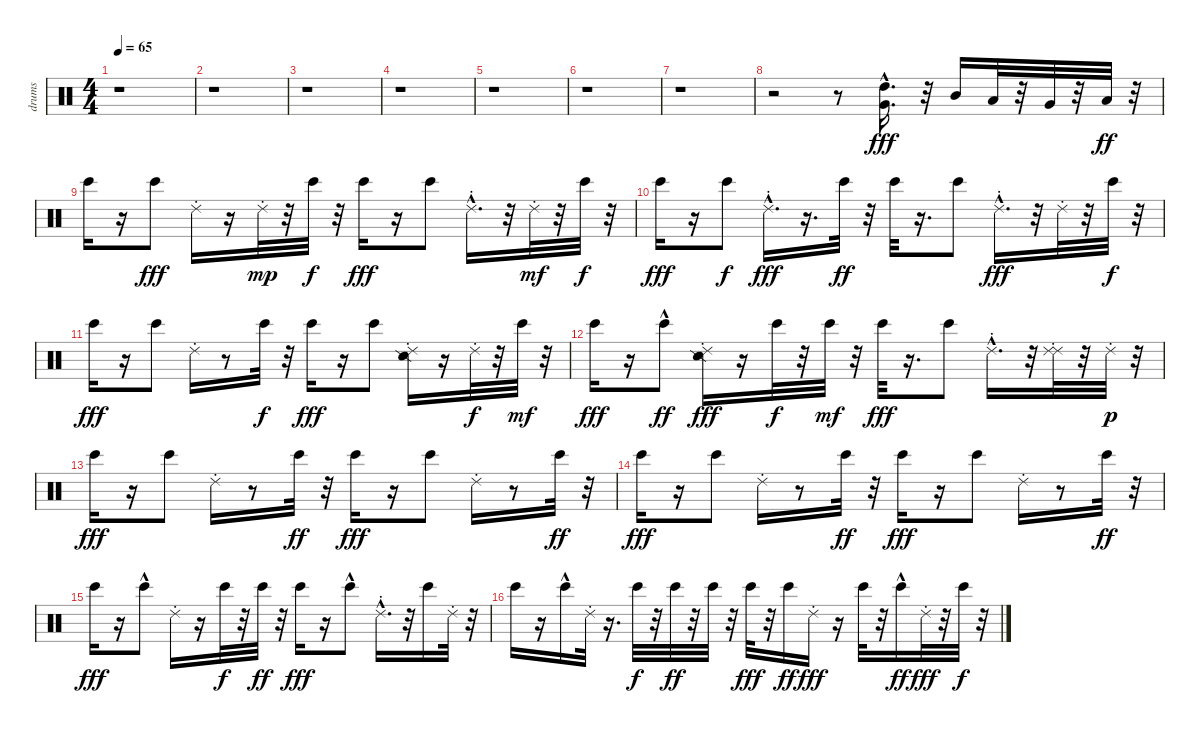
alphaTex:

\track ("drums" "drums") {instrument percussion}
\staff {score}
\articulation defaults
\ts (4 4)
\tempo 65
\clef neutral
\ks c
r.1{dy fff} |
r.1 |
r.1 |
r.1 |
r.1 |
r.1 |
r.1 |
r.2 r.8 ("Very Low Tom (hit)" "High Tom (hit)"{hac}).16{d} r.32 "Mid Tom (hit)".16 "Low Tom (hit)".32 r.32 "Very Low Tom (hit)".32 r.32 "Low Floor Tom (hit)".32{dy ff} r.32 |
"Bongo High (hit)".16 r.16 "Bongo High (hit)".8{dy fff} "Ride (choke) 2".16 r.16 "Ride (choke) 2".32{dy mp} r.32 "Bongo High (hit)".32{dy f} r.32 "Bongo High (hit)".16{dy fff} r.16 "Bongo High (hit)".8 "Ride (choke) 2"{hac}.16{d} r.32 "Ride (choke) 2".32{dy mf} r.32 "Bongo High (hit)".32{dy f} r.32 |
"Bongo High (hit)".16{dy fff} r.16 "Bongo High (hit)".8{dy f} "Ride (choke) 2"{hac}.16{d dy fff} r.16{d} "Bongo High (hit)".32{dy ff} r.32 "Bongo High (hit)".32 r.16{d} "Bongo High (hit)".8 "Ride (choke) 2"{hac}.16{d dy fff} r.32 "Ride (choke) 2".32 r.32 "Bongo High (hit)".32{dy f} r.32 |
"Bongo High (hit)".16{dy fff} r.16 "Bongo High (hit)".8 "Ride (choke) 2".16 r.8 "Bongo High (hit)".32{dy f} r.32 "Bongo High (hit)".16{dy fff} r.16 "Bongo High (hit)".8 ("Snare (side stick) 2" "Ride (choke) 2").16 r.16 "Ride (choke) 2".32{dy f} r.32 "Bongo High (hit)".32{dy mf} r.32 |
"Bongo High (hit)".16{dy fff} r.16 "Bongo High (hit)"{hac}.8{dy ff} ("Ride (choke) 2" "Snare (side stick) 2").16{dy fff} r.16 "Bongo High (hit)".32{dy f} r.32 "Bongo High (hit)".32{dy mf} r.32 "Bongo High (hit)".32{dy fff} r.16{d} "Bongo High (hit)".8 "Ride (choke) 2"{hac}.16{d} r.32 ("Ride (choke) 2" "Ride (choke) 2").32 r.32 "Ride (choke) 2".32{dy p} r.32 |
"Bongo High (hit)".16{dy fff} r.16 "Bongo High (hit)".8 "Ride (choke) 2".16 r.8 "Bongo High (hit)".32{dy ff} r.32 "Bongo High (hit)".16{dy fff} r.16 "Bongo High (hit)".8 "Ride (choke) 2".16 r.8 "Bongo High (hit)".32{dy ff} r.32 |
"Bongo High (hit)".16{dy fff} r.16 "Bongo High (hit)".8 "Ride (choke) 2".16 r.8 "Bongo High (hit)".32{dy ff} r.32 "Bongo High (hit)".16{dy fff} r.16 "Bongo High (hit)".8 "Ride (choke) 2".16 r.8 "Bongo High (hit)".32{dy ff} r.32 |
"Bongo High (hit)".16{dy fff} r.16 "Bongo High (hit)"{hac}.8 "Ride (choke) 2".16 r.16 "Bongo High (hit)".32{dy f} r.32 "Bongo High (hit)".32{dy ff} r.32 "Bongo High (hit)".16{dy fff} r.16 "Bongo High (hit)"{hac}.8 "Ride (choke) 2"{hac}.16{d} r.32 "Bongo High (hit)".16 "Ride (choke) 2".32 r.32 |
"Bongo High (hit)".16 r.16 "Bongo High (hit)"{hac}.16 "Ride (choke) 2".32 r.16{d} "Bongo High (hit)".32{dy f} r.32 "Bongo High (hit)".32{dy ff} r.32 "Bongo High (hit)".32 r.32 "Bongo High (hit)".32{dy fff} r.32 "Bongo High (hit)".16{dy ff} "Ride (choke) 2".16{dy fff} r.16 "Bongo High (hit)".32 r.32 "Bongo High (hit)"{hac}.16{dy ff} "Ride (choke) 2".32{dy fff} r.32 "Bongo High (hit)".32{dy f} r.32
